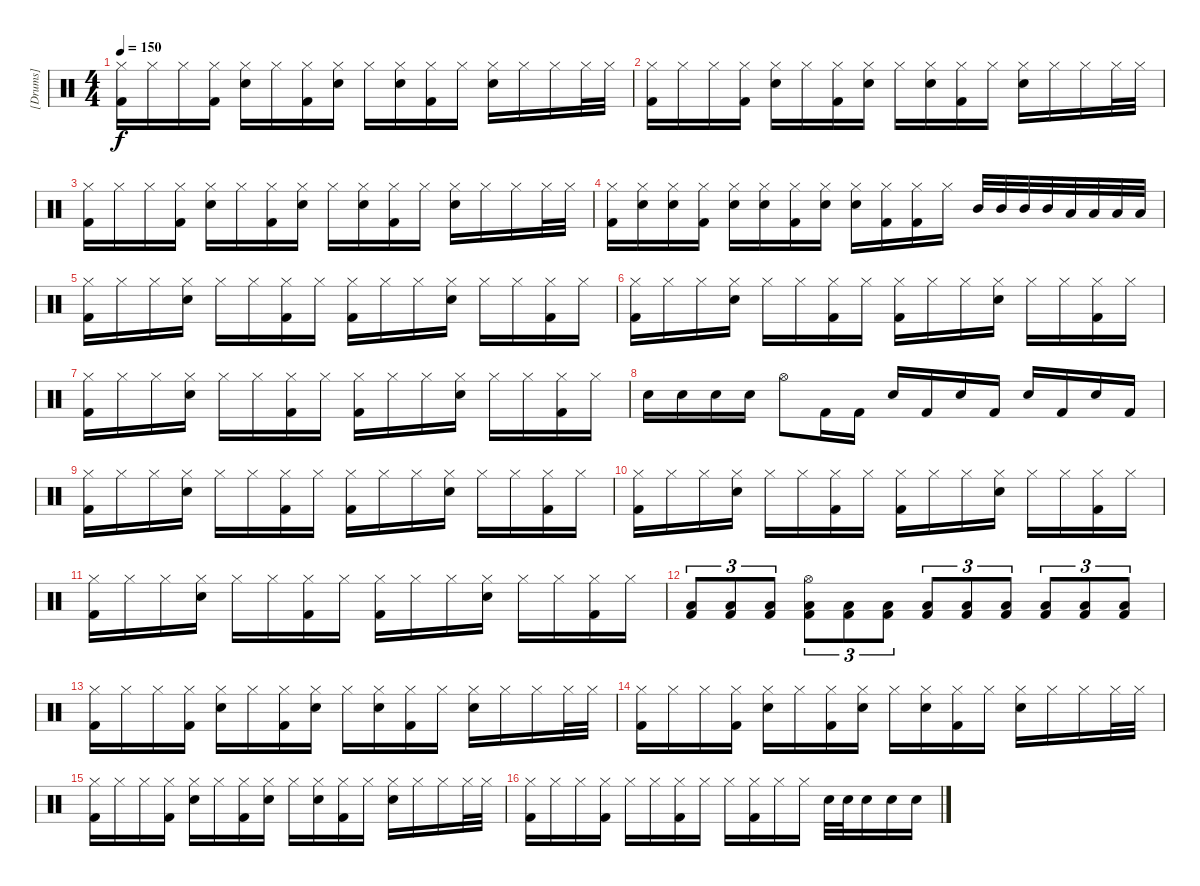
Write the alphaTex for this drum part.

\track ("[Drums]" "[Drums]") {instrument percussion}
\staff {score}
\articulation defaults
\ts (4 4)
\tempo 150
\clef neutral
\ks c
("Hi-Hat (closed)" "Kick (hit) 2").16{dy f} "Hi-Hat (closed)".16 "Hi-Hat (closed)".16 ("Hi-Hat (closed)" "Kick (hit) 2").16 ("Hi-Hat (closed)" "Snare (hit) 2").16 "Hi-Hat (closed)".16 ("Hi-Hat (closed)" "Kick (hit) 2").16 ("Hi-Hat (closed)" "Snare (hit) 2").16 "Hi-Hat (closed)".16 ("Hi-Hat (closed)" "Snare (hit) 2").16 ("Hi-Hat (closed)" "Kick (hit) 2").16 "Hi-Hat (closed)".16 ("Hi-Hat (closed)" "Snare (hit) 2").16 "Hi-Hat (closed)".16 "Hi-Hat (closed)".16 "Hi-Hat (closed)".32 "Hi-Hat (closed)".32 |
("Hi-Hat (closed)" "Kick (hit) 2").16 "Hi-Hat (closed)".16 "Hi-Hat (closed)".16 ("Hi-Hat (closed)" "Kick (hit) 2").16 ("Hi-Hat (closed)" "Snare (hit) 2").16 "Hi-Hat (closed)".16 ("Hi-Hat (closed)" "Kick (hit) 2").16 ("Hi-Hat (closed)" "Snare (hit) 2").16 "Hi-Hat (closed)".16 ("Hi-Hat (closed)" "Snare (hit) 2").16 ("Hi-Hat (closed)" "Kick (hit) 2").16 "Hi-Hat (closed)".16 ("Hi-Hat (closed)" "Snare (hit) 2").16 "Hi-Hat (closed)".16 "Hi-Hat (closed)".16 "Hi-Hat (closed)".32 "Hi-Hat (closed)".32 |
("Hi-Hat (closed)" "Kick (hit) 2").16 "Hi-Hat (closed)".16 "Hi-Hat (closed)".16 ("Hi-Hat (closed)" "Kick (hit) 2").16 ("Hi-Hat (closed)" "Snare (hit) 2").16 "Hi-Hat (closed)".16 ("Hi-Hat (closed)" "Kick (hit) 2").16 ("Hi-Hat (closed)" "Snare (hit) 2").16 "Hi-Hat (closed)".16 ("Hi-Hat (closed)" "Snare (hit) 2").16 ("Hi-Hat (closed)" "Kick (hit) 2").16 "Hi-Hat (closed)".16 ("Hi-Hat (closed)" "Snare (hit) 2").16 "Hi-Hat (closed)".16 "Hi-Hat (closed)".16 "Hi-Hat (closed)".32 "Hi-Hat (closed)".32 |
("Hi-Hat (closed)" "Kick (hit) 2").16 ("Hi-Hat (closed)" "Electric Snare (hit)").16 ("Hi-Hat (closed)" "Electric Snare (hit)").16 ("Hi-Hat (closed)" "Kick (hit) 2").16 ("Hi-Hat (closed)" "Electric Snare (hit)").16 ("Hi-Hat (closed)" "Electric Snare (hit)").16 ("Hi-Hat (closed)" "Kick (hit) 2").16 ("Hi-Hat (closed)" "Electric Snare (hit)").16 ("Hi-Hat (closed)" "Electric Snare (hit)").16 ("Hi-Hat (closed)" "Kick (hit) 2").16 ("Hi-Hat (closed)" "Kick (hit) 2").16 "Hi-Hat (closed)".16 "Mid Tom (hit)".32 "Mid Tom (hit)".32 "Mid Tom (hit)".32 "Mid Tom (hit)".32 "Low Tom (hit)".32 "Low Tom (hit)".32 "Low Tom (hit)".32 "Low Tom (hit)".32 |
("Hi-Hat (closed)" "Kick (hit) 2").16 "Hi-Hat (closed)".16 "Hi-Hat (closed)".16 ("Hi-Hat (closed)" "Snare (hit) 2").16 "Hi-Hat (closed)".16 "Hi-Hat (closed)".16 ("Hi-Hat (closed)" "Kick (hit) 2").16 "Hi-Hat (closed)".16 ("Hi-Hat (closed)" "Kick (hit) 2").16 "Hi-Hat (closed)".16 "Hi-Hat (closed)".16 ("Hi-Hat (closed)" "Snare (hit) 2").16 "Hi-Hat (closed)".16 "Hi-Hat (closed)".16 ("Hi-Hat (closed)" "Kick (hit) 2").16 "Hi-Hat (closed)".16 |
("Hi-Hat (closed)" "Kick (hit) 2").16 "Hi-Hat (closed)".16 "Hi-Hat (closed)".16 ("Hi-Hat (closed)" "Snare (hit) 2").16 "Hi-Hat (closed)".16 "Hi-Hat (closed)".16 ("Hi-Hat (closed)" "Kick (hit) 2").16 "Hi-Hat (closed)".16 ("Hi-Hat (closed)" "Kick (hit) 2").16 "Hi-Hat (closed)".16 "Hi-Hat (closed)".16 ("Hi-Hat (closed)" "Snare (hit) 2").16 "Hi-Hat (closed)".16 "Hi-Hat (closed)".16 ("Hi-Hat (closed)" "Kick (hit) 2").16 "Hi-Hat (closed)".16 |
("Hi-Hat (closed)" "Kick (hit) 2").16 "Hi-Hat (closed)".16 "Hi-Hat (closed)".16 ("Hi-Hat (closed)" "Snare (hit) 2").16 "Hi-Hat (closed)".16 "Hi-Hat (closed)".16 ("Hi-Hat (closed)" "Kick (hit) 2").16 "Hi-Hat (closed)".16 ("Hi-Hat (closed)" "Kick (hit) 2").16 "Hi-Hat (closed)".16 "Hi-Hat (closed)".16 ("Hi-Hat (closed)" "Snare (hit) 2").16 "Hi-Hat (closed)".16 "Hi-Hat (closed)".16 ("Hi-Hat (closed)" "Kick (hit) 2").16 "Hi-Hat (closed)".16 |
"Snare (hit) 2".16 "Snare (hit) 2".16 "Snare (hit) 2".16 "Snare (hit) 2".16 "Hi-Hat (open)".8 "Kick (hit) 2".16 "Kick (hit) 2".16 "Snare (hit) 2".16 "Kick (hit) 2".16 "Snare (hit) 2".16 "Kick (hit) 2".16 "Snare (hit) 2".16 "Kick (hit) 2".16 "Snare (hit) 2".16 "Kick (hit) 2".16 |
("Hi-Hat (closed)" "Kick (hit) 2").16 "Hi-Hat (closed)".16 "Hi-Hat (closed)".16 ("Hi-Hat (closed)" "Snare (hit) 2").16 "Hi-Hat (closed)".16 "Hi-Hat (closed)".16 ("Hi-Hat (closed)" "Kick (hit) 2").16 "Hi-Hat (closed)".16 ("Hi-Hat (closed)" "Kick (hit) 2").16 "Hi-Hat (closed)".16 "Hi-Hat (closed)".16 ("Hi-Hat (closed)" "Snare (hit) 2").16 "Hi-Hat (closed)".16 "Hi-Hat (closed)".16 ("Hi-Hat (closed)" "Kick (hit) 2").16 "Hi-Hat (closed)".16 |
("Hi-Hat (closed)" "Kick (hit) 2").16 "Hi-Hat (closed)".16 "Hi-Hat (closed)".16 ("Hi-Hat (closed)" "Snare (hit) 2").16 "Hi-Hat (closed)".16 "Hi-Hat (closed)".16 ("Hi-Hat (closed)" "Kick (hit) 2").16 "Hi-Hat (closed)".16 ("Hi-Hat (closed)" "Kick (hit) 2").16 "Hi-Hat (closed)".16 "Hi-Hat (closed)".16 ("Hi-Hat (closed)" "Snare (hit) 2").16 "Hi-Hat (closed)".16 "Hi-Hat (closed)".16 ("Hi-Hat (closed)" "Kick (hit) 2").16 "Hi-Hat (closed)".16 |
("Hi-Hat (closed)" "Kick (hit) 2").16 "Hi-Hat (closed)".16 "Hi-Hat (closed)".16 ("Hi-Hat (closed)" "Snare (hit) 2").16 "Hi-Hat (closed)".16 "Hi-Hat (closed)".16 ("Hi-Hat (closed)" "Kick (hit) 2").16 "Hi-Hat (closed)".16 ("Hi-Hat (closed)" "Kick (hit) 2").16 "Hi-Hat (closed)".16 "Hi-Hat (closed)".16 ("Hi-Hat (closed)" "Snare (hit) 2").16 "Hi-Hat (closed)".16 "Hi-Hat (closed)".16 ("Hi-Hat (closed)" "Kick (hit) 2").16 "Hi-Hat (closed)".16 |
("Low Tom (hit)" "Kick (hit) 2").8{tu (3 2)} ("Low Tom (hit)" "Kick (hit) 2").8{tu (3 2)} ("Low Tom (hit)" "Kick (hit) 2").8{tu (3 2)} ("Hi-Hat (open)" "Low Tom (hit)" "Kick (hit) 2").8{tu (3 2)} ("Low Tom (hit)" "Kick (hit) 2").8{tu (3 2)} ("Low Tom (hit)" "Kick (hit) 2").8{tu (3 2)} ("Low Tom (hit)" "Kick (hit) 2").8{tu (3 2)} ("Low Tom (hit)" "Kick (hit) 2").8{tu (3 2)} ("Low Tom (hit)" "Kick (hit) 2").8{tu (3 2)} ("Low Tom (hit)" "Kick (hit) 2").8{tu (3 2)} ("Low Tom (hit)" "Kick (hit) 2").8{tu (3 2)} ("Low Tom (hit)" "Kick (hit) 2").8{tu (3 2)} |
("Hi-Hat (closed)" "Kick (hit) 2").16 "Hi-Hat (closed)".16 "Hi-Hat (closed)".16 ("Hi-Hat (closed)" "Kick (hit) 2").16 ("Hi-Hat (closed)" "Snare (hit) 2").16 "Hi-Hat (closed)".16 ("Hi-Hat (closed)" "Kick (hit) 2").16 ("Hi-Hat (closed)" "Snare (hit) 2").16 "Hi-Hat (closed)".16 ("Hi-Hat (closed)" "Snare (hit) 2").16 ("Hi-Hat (closed)" "Kick (hit) 2").16 "Hi-Hat (closed)".16 ("Hi-Hat (closed)" "Snare (hit) 2").16 "Hi-Hat (closed)".16 "Hi-Hat (closed)".16 "Hi-Hat (closed)".32 "Hi-Hat (closed)".32 |
("Hi-Hat (closed)" "Kick (hit) 2").16 "Hi-Hat (closed)".16 "Hi-Hat (closed)".16 ("Hi-Hat (closed)" "Kick (hit) 2").16 ("Hi-Hat (closed)" "Snare (hit) 2").16 "Hi-Hat (closed)".16 ("Hi-Hat (closed)" "Kick (hit) 2").16 ("Hi-Hat (closed)" "Snare (hit) 2").16 "Hi-Hat (closed)".16 ("Hi-Hat (closed)" "Snare (hit) 2").16 ("Hi-Hat (closed)" "Kick (hit) 2").16 "Hi-Hat (closed)".16 ("Hi-Hat (closed)" "Snare (hit) 2").16 "Hi-Hat (closed)".16 "Hi-Hat (closed)".16 "Hi-Hat (closed)".32 "Hi-Hat (closed)".32 |
("Hi-Hat (closed)" "Kick (hit) 2").16 "Hi-Hat (closed)".16 "Hi-Hat (closed)".16 ("Hi-Hat (closed)" "Kick (hit) 2").16 ("Hi-Hat (closed)" "Snare (hit) 2").16 "Hi-Hat (closed)".16 ("Hi-Hat (closed)" "Kick (hit) 2").16 ("Hi-Hat (closed)" "Snare (hit) 2").16 "Hi-Hat (closed)".16 ("Hi-Hat (closed)" "Snare (hit) 2").16 ("Hi-Hat (closed)" "Kick (hit) 2").16 "Hi-Hat (closed)".16 ("Hi-Hat (closed)" "Snare (hit) 2").16 "Hi-Hat (closed)".16 "Hi-Hat (closed)".16 "Hi-Hat (closed)".32 "Hi-Hat (closed)".32 |
("Hi-Hat (closed)" "Kick (hit) 2").16 "Hi-Hat (closed)".16 "Hi-Hat (closed)".16 ("Hi-Hat (closed)" "Kick (hit) 2").16 "Hi-Hat (closed)".16 "Hi-Hat (closed)".16 ("Hi-Hat (closed)" "Kick (hit) 2").16 "Hi-Hat (closed)".16 "Hi-Hat (closed)".16 ("Hi-Hat (closed)" "Kick (hit) 2").16 "Hi-Hat (closed)".16 "Hi-Hat (closed)".16 "Electric Snare (hit)".32 "Electric Snare (hit)".32 "Electric Snare (hit)".16 "Electric Snare (hit)".16 "Electric Snare (hit)".16
